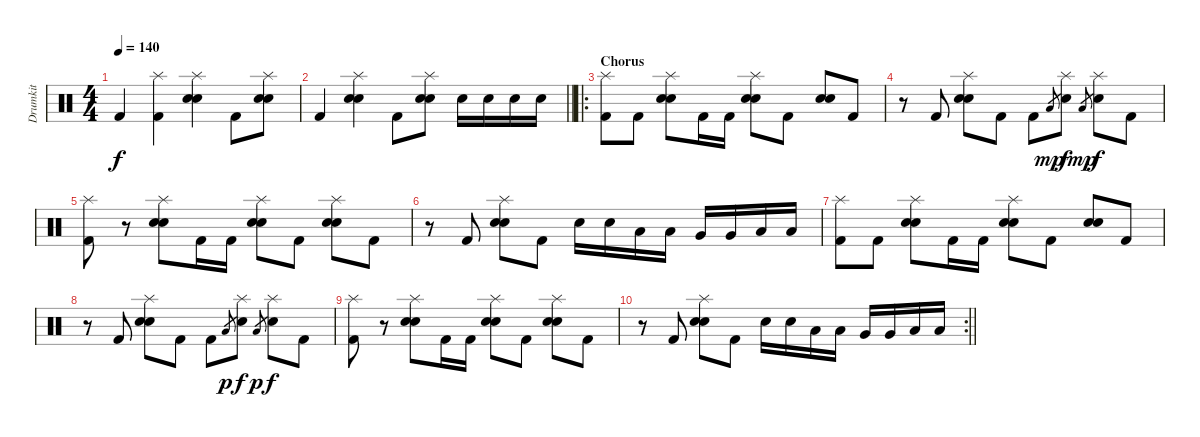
\track ("Drumkit" "Drumkit") {instrument percussion}
\staff {score}
\articulation defaults
\ts (4 4)
\tempo 140
\clef neutral
\ks c "Kick (hit) 2".4{dy f}
("Splash (hit)" "Kick (hit) 2").4 ("Splash (hit)" "Electric Snare (hit)" "Snare (hit) 2").4 "Kick (hit) 2".8 ("Splash (hit)" "Electric Snare (hit)" "Snare (hit) 2").8 |
\barLineRight lightlight "Kick (hit) 2".4
("Splash (hit)" "Electric Snare (hit)" "Snare (hit) 2").4 "Kick (hit) 2".8 ("Splash (hit)" "Electric Snare (hit)" "Snare (hit) 2").8 "Electric Snare (hit)".16 "Electric Snare (hit)".16 "Electric Snare (hit)".16 "Electric Snare (hit)".16 |
\ro
\section ("" "Chorus")
("Splash (hit)" "Kick (hit) 2").8 "Kick (hit) 2".8 ("Splash (hit)" "Electric Snare (hit)" "Snare (hit) 2").8 "Kick (hit) 2".16 "Kick (hit) 2".16 ("Splash (hit)" "Electric Snare (hit)" "Snare (hit) 2").8 "Kick (hit) 2".8 ("Electric Snare (hit)" "Snare (hit) 2").8 "Kick (hit) 2".8 |
r.8 "Kick (hit) 2".8 ("Splash (hit)" "Electric Snare (hit)" "Snare (hit) 2").8 "Kick (hit) 2".8 "Kick (hit) 2".8 "Low Tom (hit)".8{gr dy mp} ("Splash (hit)" "Electric Snare (hit)").8{dy f} "Low Tom (hit)".8{gr dy mp} ("Splash (hit)" "Electric Snare (hit)").8{dy f} "Kick (hit) 2".8 |
("Splash (hit)" "Kick (hit) 2").8 r.8 ("Splash (hit)" "Electric Snare (hit)" "Snare (hit) 2").8 "Kick (hit) 2".16 "Kick (hit) 2".16 ("Splash (hit)" "Electric Snare (hit)" "Snare (hit) 2").8 "Kick (hit) 2".8 ("Splash (hit)" "Electric Snare (hit)" "Snare (hit) 2").8 "Kick (hit) 2".8 |
r.8 "Kick (hit) 2".8 ("Splash (hit)" "Electric Snare (hit)" "Snare (hit) 2").8 "Kick (hit) 2".8 "Electric Snare (hit)".16 "Electric Snare (hit)".16 "Low Tom (hit)".16 "Low Tom (hit)".16 "Very Low Tom (hit)".16 "Very Low Tom (hit)".16 "Low Floor Tom (hit)".16 "Low Floor Tom (hit)".16 |
("Splash (hit)" "Kick (hit) 2").8 "Kick (hit) 2".8 ("Splash (hit)" "Electric Snare (hit)" "Snare (hit) 2").8 "Kick (hit) 2".16 "Kick (hit) 2".16 ("Splash (hit)" "Electric Snare (hit)" "Snare (hit) 2").8 "Kick (hit) 2".8 ("Electric Snare (hit)" "Snare (hit) 2").8 "Kick (hit) 2".8 |
r.8 "Kick (hit) 2".8 ("Splash (hit)" "Electric Snare (hit)" "Snare (hit) 2").8 "Kick (hit) 2".8 "Kick (hit) 2".8 "Low Tom (hit)".8{gr dy p} ("Splash (hit)" "Electric Snare (hit)").8{dy f} "Low Tom (hit)".8{gr dy p} ("Splash (hit)" "Electric Snare (hit)").8{dy f} "Kick (hit) 2".8 |
("Splash (hit)" "Kick (hit) 2").8 r.8 ("Splash (hit)" "Electric Snare (hit)" "Snare (hit) 2").8 "Kick (hit) 2".16 "Kick (hit) 2".16 ("Splash (hit)" "Electric Snare (hit)" "Snare (hit) 2").8 "Kick (hit) 2".8 ("Splash (hit)" "Electric Snare (hit)" "Snare (hit) 2").8 "Kick (hit) 2".8 |
\rc 2
\barLineRight lightlight
r.8 "Kick (hit) 2".8 ("Splash (hit)" "Electric Snare (hit)" "Snare (hit) 2").8 "Kick (hit) 2".8 "Electric Snare (hit)".16 "Electric Snare (hit)".16 "Low Tom (hit)".16 "Low Tom (hit)".16 "Very Low Tom (hit)".16 "Very Low Tom (hit)".16 "Low Floor Tom (hit)".16 "Low Floor Tom (hit)".16
